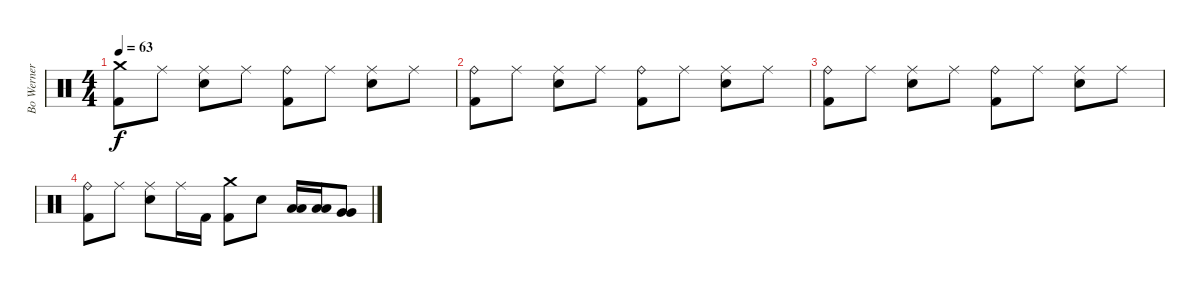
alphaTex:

\track ("Bo Werner " "Bo Werner ") {instrument percussion}
\staff {score}
\articulation defaults
\ts (4 4)
\tempo 63
\clef neutral
\ks c
("Crash medium (hit)" "Kick (hit) 2").8{dy f} "Ride (middle)".8 ("Ride (middle)" "Electric Snare (hit)").8 "Ride (middle)".8 ("Ride (bell)" "Kick (hit) 2").8 "Ride (middle)".8 ("Ride (middle)" "Electric Snare (hit)").8 "Ride (middle)".8 |
("Ride (bell)" "Kick (hit) 2").8 "Ride (middle)".8 ("Ride (middle)" "Electric Snare (hit)").8 "Ride (middle)".8 ("Ride (bell)" "Kick (hit) 2").8 "Ride (middle)".8 ("Ride (middle)" "Electric Snare (hit)").8 "Ride (middle)".8 |
("Ride (bell)" "Kick (hit) 2").8 "Ride (middle)".8 ("Ride (middle)" "Electric Snare (hit)").8 "Ride (middle)".8 ("Ride (bell)" "Kick (hit) 2").8 "Ride (middle)".8 ("Ride (middle)" "Electric Snare (hit)").8 "Ride (middle)".8 |
("Ride (bell)" "Kick (hit) 2").8 "Ride (middle)".8 ("Ride (middle)" "Electric Snare (hit)").8 "Ride (middle)".16 "Kick (hit) 2".16 ("Crash medium (hit)" "Kick (hit) 2").8 "Electric Snare (hit)".8 ("Low Tom (hit)" "Low Tom (hit)").16 ("Low Tom (hit)" "Low Tom (hit)").16 ("Very Low Tom (hit)" "Very Low Tom (hit)").8
